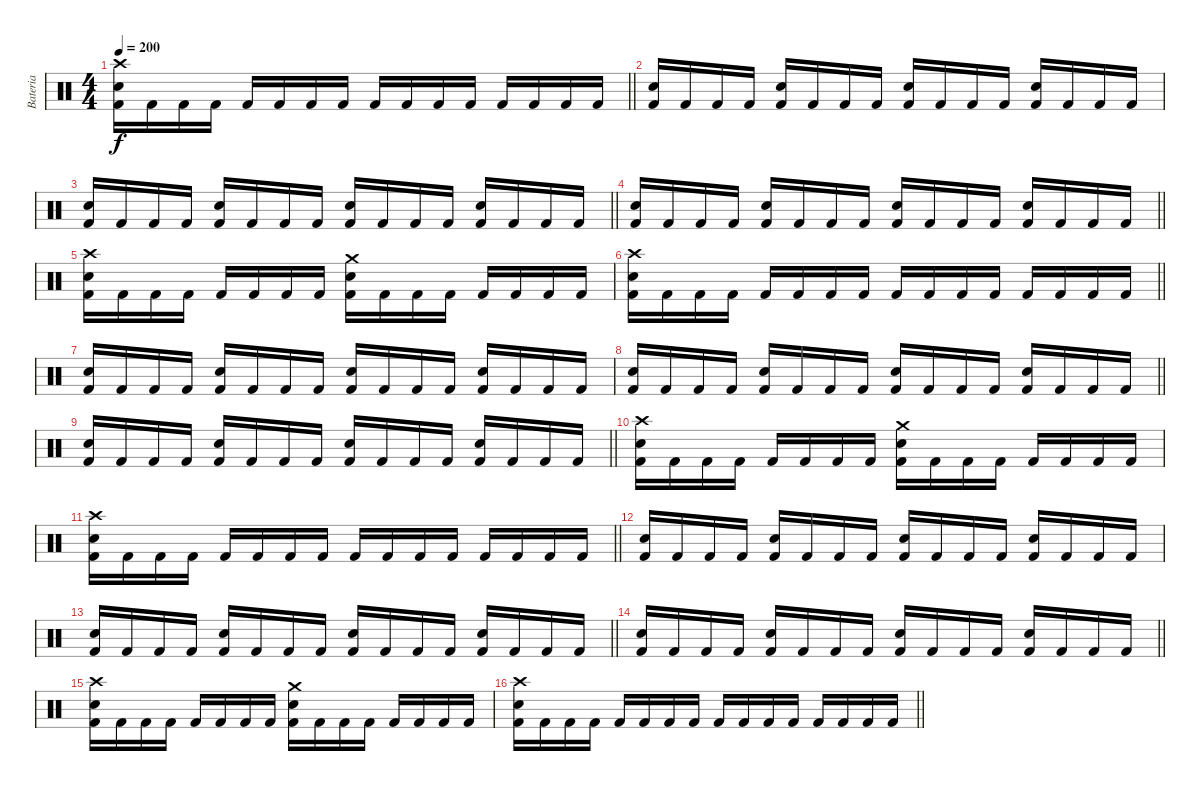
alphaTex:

\track ("Bateria" "Bateria") {instrument percussion}
\staff {score}
\articulation defaults
\ts (4 4)
\tempo 200
\clef neutral
\barLineRight lightlight
\ks c
("Crash high (hit)" "Electric Snare (hit)" "Kick (hit) 2").16{dy f} "Kick (hit) 2".16 "Kick (hit) 2".16 "Kick (hit) 2".16 "Kick (hit) 2".16 "Kick (hit) 2".16 "Kick (hit) 2".16 "Kick (hit) 2".16 "Kick (hit) 2".16 "Kick (hit) 2".16 "Kick (hit) 2".16 "Kick (hit) 2".16 "Kick (hit) 2".16 "Kick (hit) 2".16 "Kick (hit) 2".16 "Kick (hit) 2".16 |
("Electric Snare (hit)" "Kick (hit) 2").16 "Kick (hit) 2".16 "Kick (hit) 2".16 "Kick (hit) 2".16 ("Electric Snare (hit)" "Kick (hit) 2").16 "Kick (hit) 2".16 "Kick (hit) 2".16 "Kick (hit) 2".16 ("Electric Snare (hit)" "Kick (hit) 2").16 "Kick (hit) 2".16 "Kick (hit) 2".16 "Kick (hit) 2".16 ("Electric Snare (hit)" "Kick (hit) 2").16 "Kick (hit) 2".16 "Kick (hit) 2".16 "Kick (hit) 2".16 |
\barLineRight lightlight
("Electric Snare (hit)" "Kick (hit) 2").16 "Kick (hit) 2".16 "Kick (hit) 2".16 "Kick (hit) 2".16 ("Electric Snare (hit)" "Kick (hit) 2").16 "Kick (hit) 2".16 "Kick (hit) 2".16 "Kick (hit) 2".16 ("Electric Snare (hit)" "Kick (hit) 2").16 "Kick (hit) 2".16 "Kick (hit) 2".16 "Kick (hit) 2".16 ("Electric Snare (hit)" "Kick (hit) 2").16 "Kick (hit) 2".16 "Kick (hit) 2".16 "Kick (hit) 2".16 |
\barLineRight lightlight
("Electric Snare (hit)" "Kick (hit) 2").16 "Kick (hit) 2".16 "Kick (hit) 2".16 "Kick (hit) 2".16 ("Electric Snare (hit)" "Kick (hit) 2").16 "Kick (hit) 2".16 "Kick (hit) 2".16 "Kick (hit) 2".16 ("Electric Snare (hit)" "Kick (hit) 2").16 "Kick (hit) 2".16 "Kick (hit) 2".16 "Kick (hit) 2".16 ("Electric Snare (hit)" "Kick (hit) 2").16 "Kick (hit) 2".16 "Kick (hit) 2".16 "Kick (hit) 2".16 |
("Crash high (hit)" "Electric Snare (hit)" "Kick (hit) 2").16 "Kick (hit) 2".16 "Kick (hit) 2".16 "Kick (hit) 2".16 "Kick (hit) 2".16 "Kick (hit) 2".16 "Kick (hit) 2".16 "Kick (hit) 2".16 ("Crash medium (hit)" "Electric Snare (hit)" "Kick (hit) 2").16 "Kick (hit) 2".16 "Kick (hit) 2".16 "Kick (hit) 2".16 "Kick (hit) 2".16 "Kick (hit) 2".16 "Kick (hit) 2".16 "Kick (hit) 2".16 |
\barLineRight lightlight
("Crash high (hit)" "Electric Snare (hit)" "Kick (hit) 2").16 "Kick (hit) 2".16 "Kick (hit) 2".16 "Kick (hit) 2".16 "Kick (hit) 2".16 "Kick (hit) 2".16 "Kick (hit) 2".16 "Kick (hit) 2".16 "Kick (hit) 2".16 "Kick (hit) 2".16 "Kick (hit) 2".16 "Kick (hit) 2".16 "Kick (hit) 2".16 "Kick (hit) 2".16 "Kick (hit) 2".16 "Kick (hit) 2".16 |
("Electric Snare (hit)" "Kick (hit) 2").16 "Kick (hit) 2".16 "Kick (hit) 2".16 "Kick (hit) 2".16 ("Electric Snare (hit)" "Kick (hit) 2").16 "Kick (hit) 2".16 "Kick (hit) 2".16 "Kick (hit) 2".16 ("Electric Snare (hit)" "Kick (hit) 2").16 "Kick (hit) 2".16 "Kick (hit) 2".16 "Kick (hit) 2".16 ("Electric Snare (hit)" "Kick (hit) 2").16 "Kick (hit) 2".16 "Kick (hit) 2".16 "Kick (hit) 2".16 |
\barLineRight lightlight
("Electric Snare (hit)" "Kick (hit) 2").16 "Kick (hit) 2".16 "Kick (hit) 2".16 "Kick (hit) 2".16 ("Electric Snare (hit)" "Kick (hit) 2").16 "Kick (hit) 2".16 "Kick (hit) 2".16 "Kick (hit) 2".16 ("Electric Snare (hit)" "Kick (hit) 2").16 "Kick (hit) 2".16 "Kick (hit) 2".16 "Kick (hit) 2".16 ("Electric Snare (hit)" "Kick (hit) 2").16 "Kick (hit) 2".16 "Kick (hit) 2".16 "Kick (hit) 2".16 |
\barLineRight lightlight
("Electric Snare (hit)" "Kick (hit) 2").16 "Kick (hit) 2".16 "Kick (hit) 2".16 "Kick (hit) 2".16 ("Electric Snare (hit)" "Kick (hit) 2").16 "Kick (hit) 2".16 "Kick (hit) 2".16 "Kick (hit) 2".16 ("Electric Snare (hit)" "Kick (hit) 2").16 "Kick (hit) 2".16 "Kick (hit) 2".16 "Kick (hit) 2".16 ("Electric Snare (hit)" "Kick (hit) 2").16 "Kick (hit) 2".16 "Kick (hit) 2".16 "Kick (hit) 2".16 |
("Crash high (hit)" "Electric Snare (hit)" "Kick (hit) 2").16 "Kick (hit) 2".16 "Kick (hit) 2".16 "Kick (hit) 2".16 "Kick (hit) 2".16 "Kick (hit) 2".16 "Kick (hit) 2".16 "Kick (hit) 2".16 ("Crash medium (hit)" "Electric Snare (hit)" "Kick (hit) 2").16 "Kick (hit) 2".16 "Kick (hit) 2".16 "Kick (hit) 2".16 "Kick (hit) 2".16 "Kick (hit) 2".16 "Kick (hit) 2".16 "Kick (hit) 2".16 |
\barLineRight lightlight
("Crash high (hit)" "Electric Snare (hit)" "Kick (hit) 2").16 "Kick (hit) 2".16 "Kick (hit) 2".16 "Kick (hit) 2".16 "Kick (hit) 2".16 "Kick (hit) 2".16 "Kick (hit) 2".16 "Kick (hit) 2".16 "Kick (hit) 2".16 "Kick (hit) 2".16 "Kick (hit) 2".16 "Kick (hit) 2".16 "Kick (hit) 2".16 "Kick (hit) 2".16 "Kick (hit) 2".16 "Kick (hit) 2".16 |
("Electric Snare (hit)" "Kick (hit) 2").16 "Kick (hit) 2".16 "Kick (hit) 2".16 "Kick (hit) 2".16 ("Electric Snare (hit)" "Kick (hit) 2").16 "Kick (hit) 2".16 "Kick (hit) 2".16 "Kick (hit) 2".16 ("Electric Snare (hit)" "Kick (hit) 2").16 "Kick (hit) 2".16 "Kick (hit) 2".16 "Kick (hit) 2".16 ("Electric Snare (hit)" "Kick (hit) 2").16 "Kick (hit) 2".16 "Kick (hit) 2".16 "Kick (hit) 2".16 |
\barLineRight lightlight
("Electric Snare (hit)" "Kick (hit) 2").16 "Kick (hit) 2".16 "Kick (hit) 2".16 "Kick (hit) 2".16 ("Electric Snare (hit)" "Kick (hit) 2").16 "Kick (hit) 2".16 "Kick (hit) 2".16 "Kick (hit) 2".16 ("Electric Snare (hit)" "Kick (hit) 2").16 "Kick (hit) 2".16 "Kick (hit) 2".16 "Kick (hit) 2".16 ("Electric Snare (hit)" "Kick (hit) 2").16 "Kick (hit) 2".16 "Kick (hit) 2".16 "Kick (hit) 2".16 |
\barLineRight lightlight
("Electric Snare (hit)" "Kick (hit) 2").16 "Kick (hit) 2".16 "Kick (hit) 2".16 "Kick (hit) 2".16 ("Electric Snare (hit)" "Kick (hit) 2").16 "Kick (hit) 2".16 "Kick (hit) 2".16 "Kick (hit) 2".16 ("Electric Snare (hit)" "Kick (hit) 2").16 "Kick (hit) 2".16 "Kick (hit) 2".16 "Kick (hit) 2".16 ("Electric Snare (hit)" "Kick (hit) 2").16 "Kick (hit) 2".16 "Kick (hit) 2".16 "Kick (hit) 2".16 |
("Crash high (hit)" "Electric Snare (hit)" "Kick (hit) 2").16 "Kick (hit) 2".16 "Kick (hit) 2".16 "Kick (hit) 2".16 "Kick (hit) 2".16 "Kick (hit) 2".16 "Kick (hit) 2".16 "Kick (hit) 2".16 ("Crash medium (hit)" "Electric Snare (hit)" "Kick (hit) 2").16 "Kick (hit) 2".16 "Kick (hit) 2".16 "Kick (hit) 2".16 "Kick (hit) 2".16 "Kick (hit) 2".16 "Kick (hit) 2".16 "Kick (hit) 2".16 |
\barLineRight lightlight
("Crash high (hit)" "Electric Snare (hit)" "Kick (hit) 2").16 "Kick (hit) 2".16 "Kick (hit) 2".16 "Kick (hit) 2".16 "Kick (hit) 2".16 "Kick (hit) 2".16 "Kick (hit) 2".16 "Kick (hit) 2".16 "Kick (hit) 2".16 "Kick (hit) 2".16 "Kick (hit) 2".16 "Kick (hit) 2".16 "Kick (hit) 2".16 "Kick (hit) 2".16 "Kick (hit) 2".16 "Kick (hit) 2".16
